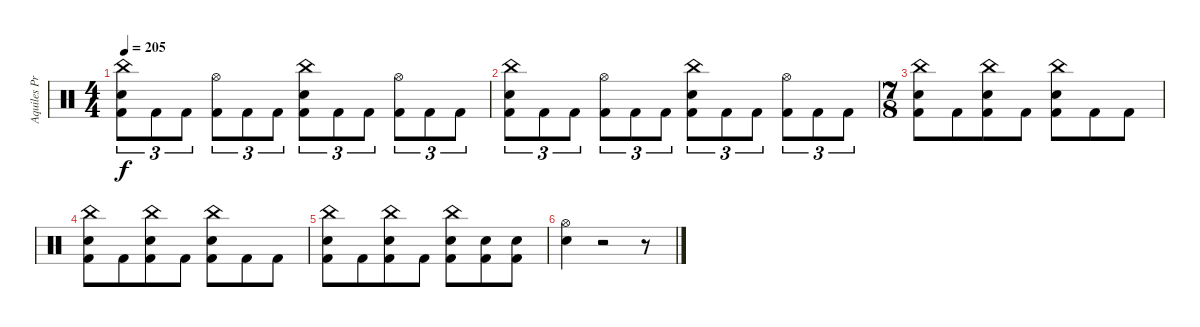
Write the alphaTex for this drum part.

\track ("Aquiles Priester" "Aquiles Pr") {instrument percussion}
\staff {score}
\articulation defaults
\ts (4 4)
\tempo 205
\clef neutral
\ks c
("China (hit)" "Electric Snare (hit)" "Kick (hit) 2").8{tu (3 2) dy f} "Kick (hit) 2".8{tu (3 2)} "Kick (hit) 2".8{tu (3 2)} ("Hi-Hat (open)" "Kick (hit) 2").8{tu (3 2)} "Kick (hit) 2".8{tu (3 2)} "Kick (hit) 2".8{tu (3 2)} ("China (hit)" "Electric Snare (hit)" "Kick (hit) 2").8{tu (3 2)} "Kick (hit) 2".8{tu (3 2)} "Kick (hit) 2".8{tu (3 2)} ("Hi-Hat (open)" "Kick (hit) 2").8{tu (3 2)} "Kick (hit) 2".8{tu (3 2)} "Kick (hit) 2".8{tu (3 2)} |
("China (hit)" "Electric Snare (hit)" "Kick (hit) 2").8{tu (3 2)} "Kick (hit) 2".8{tu (3 2)} "Kick (hit) 2".8{tu (3 2)} ("Hi-Hat (open)" "Kick (hit) 2").8{tu (3 2)} "Kick (hit) 2".8{tu (3 2)} "Kick (hit) 2".8{tu (3 2)} ("China (hit)" "Electric Snare (hit)" "Kick (hit) 2").8{tu (3 2)} "Kick (hit) 2".8{tu (3 2)} "Kick (hit) 2".8{tu (3 2)} ("Hi-Hat (open)" "Kick (hit) 2").8{tu (3 2)} "Kick (hit) 2".8{tu (3 2)} "Kick (hit) 2".8{tu (3 2)} |
\ts (7 8)
("China (hit)" "Electric Snare (hit)" "Kick (hit) 2").8 "Kick (hit) 2".8 ("China (hit)" "Electric Snare (hit)" "Kick (hit) 2").8 "Kick (hit) 2".8 ("China (hit)" "Electric Snare (hit)" "Kick (hit) 2").8 "Kick (hit) 2".8 "Kick (hit) 2".8 |
("China (hit)" "Electric Snare (hit)" "Kick (hit) 2").8 "Kick (hit) 2".8 ("China (hit)" "Electric Snare (hit)" "Kick (hit) 2").8 "Kick (hit) 2".8 ("China (hit)" "Electric Snare (hit)" "Kick (hit) 2").8 "Kick (hit) 2".8 "Kick (hit) 2".8 |
("China (hit)" "Electric Snare (hit)" "Kick (hit) 2").8 "Kick (hit) 2".8 ("China (hit)" "Electric Snare (hit)" "Kick (hit) 2").8 "Kick (hit) 2".8 ("China (hit)" "Electric Snare (hit)" "Kick (hit) 2").8 ("Electric Snare (hit)" "Kick (hit) 2").8 ("Electric Snare (hit)" "Kick (hit) 2").8 |
("Hi-Hat (open)" "Electric Snare (hit)").4 r.2 r.8
